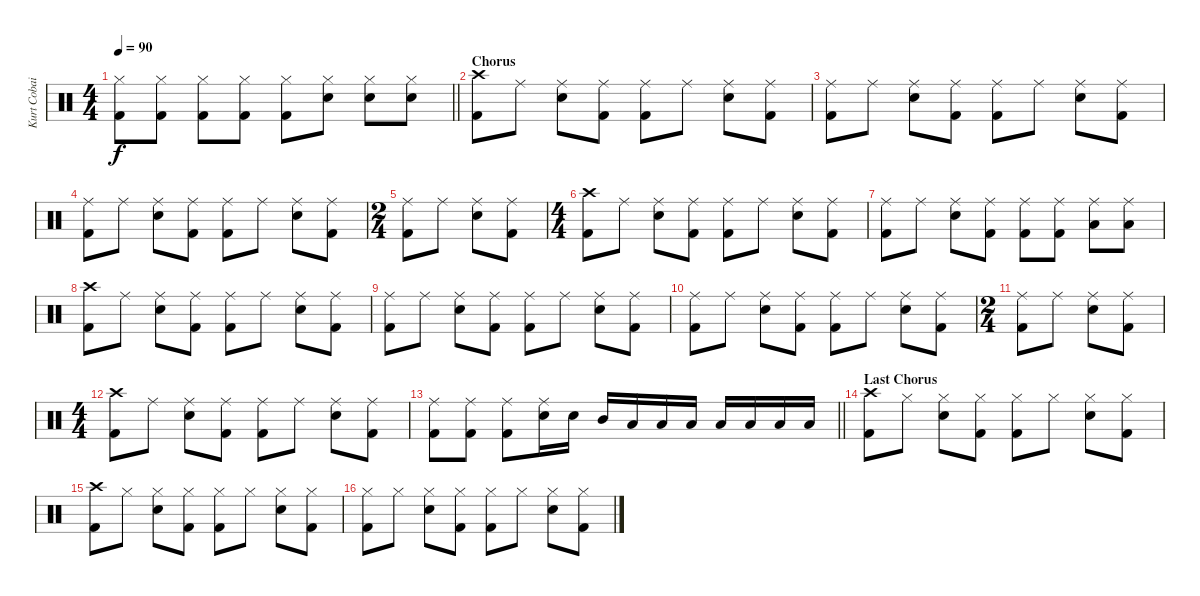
\track ("Kurt Cobain" "Kurt Cobai") {instrument percussion}
\staff {score}
\articulation defaults
\ts (4 4)
\tempo 90
\clef neutral
\barLineRight lightlight
\ks c
("Hi-Hat (closed)" "Kick (hit) 2").8{dy f} ("Hi-Hat (closed)" "Kick (hit) 2").8 ("Hi-Hat (closed)" "Kick (hit) 2").8 ("Hi-Hat (closed)" "Kick (hit) 2").8 ("Hi-Hat (closed)" "Kick (hit) 2").8 ("Hi-Hat (closed)" "Snare (hit) 2").8 ("Hi-Hat (closed)" "Snare (hit) 2").8 ("Hi-Hat (closed)" "Snare (hit) 2").8 |
\section ("" "Chorus")
("Crash high (hit)" "Kick (hit) 2").8 "Ride (middle)".8 ("Ride (middle)" "Snare (hit) 2").8 ("Ride (middle)" "Kick (hit) 2").8 ("Ride (middle)" "Kick (hit) 2").8 "Ride (middle)".8 ("Ride (middle)" "Snare (hit) 2").8 ("Ride (middle)" "Kick (hit) 2").8 |
("Ride (middle)" "Kick (hit) 2").8 "Ride (middle)".8 ("Ride (middle)" "Snare (hit) 2").8 ("Ride (middle)" "Kick (hit) 2").8 ("Ride (middle)" "Kick (hit) 2").8 "Ride (middle)".8 ("Ride (middle)" "Snare (hit) 2").8 ("Ride (middle)" "Kick (hit) 2").8 |
("Ride (middle)" "Kick (hit) 2").8 "Ride (middle)".8 ("Ride (middle)" "Snare (hit) 2").8 ("Ride (middle)" "Kick (hit) 2").8 ("Ride (middle)" "Kick (hit) 2").8 "Ride (middle)".8 ("Ride (middle)" "Snare (hit) 2").8 ("Ride (middle)" "Kick (hit) 2").8 |
\ts (2 4)
("Ride (middle)" "Kick (hit) 2").8 "Ride (middle)".8 ("Ride (middle)" "Snare (hit) 2").8 ("Ride (middle)" "Kick (hit) 2").8 |
\ts (4 4)
("Crash high (hit)" "Kick (hit) 2").8 "Ride (middle)".8 ("Ride (middle)" "Snare (hit) 2").8 ("Ride (middle)" "Kick (hit) 2").8 ("Ride (middle)" "Kick (hit) 2").8 "Ride (middle)".8 ("Ride (middle)" "Snare (hit) 2").8 ("Ride (middle)" "Kick (hit) 2").8 |
("Ride (middle)" "Kick (hit) 2").8 "Ride (middle)".8 ("Ride (middle)" "Snare (hit) 2").8 ("Ride (middle)" "Kick (hit) 2").8 ("Ride (middle)" "Kick (hit) 2").8 ("Ride (middle)" "Kick (hit) 2").8 ("Ride (middle)" "Low Tom (hit)").8 ("Ride (middle)" "Low Tom (hit)").8 |
("Crash high (hit)" "Kick (hit) 2").8 "Ride (middle)".8 ("Ride (middle)" "Snare (hit) 2").8 ("Ride (middle)" "Kick (hit) 2").8 ("Ride (middle)" "Kick (hit) 2").8 "Ride (middle)".8 ("Ride (middle)" "Snare (hit) 2").8 ("Ride (middle)" "Kick (hit) 2").8 |
("Ride (middle)" "Kick (hit) 2").8 "Ride (middle)".8 ("Ride (middle)" "Snare (hit) 2").8 ("Ride (middle)" "Kick (hit) 2").8 ("Ride (middle)" "Kick (hit) 2").8 "Ride (middle)".8 ("Ride (middle)" "Snare (hit) 2").8 ("Ride (middle)" "Kick (hit) 2").8 |
("Ride (middle)" "Kick (hit) 2").8 "Ride (middle)".8 ("Ride (middle)" "Snare (hit) 2").8 ("Ride (middle)" "Kick (hit) 2").8 ("Ride (middle)" "Kick (hit) 2").8 "Ride (middle)".8 ("Ride (middle)" "Snare (hit) 2").8 ("Ride (middle)" "Kick (hit) 2").8 |
\ts (2 4)
("Ride (middle)" "Kick (hit) 2").8 "Ride (middle)".8 ("Ride (middle)" "Snare (hit) 2").8 ("Ride (middle)" "Kick (hit) 2").8 |
\ts (4 4)
("Crash high (hit)" "Kick (hit) 2").8 "Ride (middle)".8 ("Ride (middle)" "Snare (hit) 2").8 ("Ride (middle)" "Kick (hit) 2").8 ("Ride (middle)" "Kick (hit) 2").8 "Ride (middle)".8 ("Ride (middle)" "Snare (hit) 2").8 ("Ride (middle)" "Kick (hit) 2").8 |
\barLineRight lightlight
("Ride (middle)" "Kick (hit) 2").8 ("Ride (middle)" "Kick (hit) 2").8 ("Ride (middle)" "Kick (hit) 2").8 ("Ride (middle)" "Snare (hit) 2").16 "Snare (hit) 2".16 "Mid Tom (hit)".16 "Low Tom (hit)".16 "Low Tom (hit)".16 "Low Tom (hit)".16 "Low Tom (hit)".16 "Low Tom (hit)".16 "Low Tom (hit)".16 "Low Tom (hit)".16 |
\section ("" "Last Chorus")
("Crash high (hit)" "Kick (hit) 2").8 "Hi-Hat (closed)".8 ("Hi-Hat (closed)" "Snare (hit) 2").8 ("Hi-Hat (closed)" "Kick (hit) 2").8 ("Hi-Hat (closed)" "Kick (hit) 2").8 "Hi-Hat (closed)".8 ("Hi-Hat (closed)" "Snare (hit) 2").8 ("Hi-Hat (closed)" "Kick (hit) 2").8 |
("Crash high (hit)" "Kick (hit) 2").8 "Hi-Hat (closed)".8 ("Hi-Hat (closed)" "Snare (hit) 2").8 ("Hi-Hat (closed)" "Kick (hit) 2").8 ("Hi-Hat (closed)" "Kick (hit) 2").8 "Hi-Hat (closed)".8 ("Hi-Hat (closed)" "Snare (hit) 2").8 ("Hi-Hat (closed)" "Kick (hit) 2").8 |
("Hi-Hat (closed)" "Kick (hit) 2").8 "Hi-Hat (closed)".8 ("Hi-Hat (closed)" "Snare (hit) 2").8 ("Hi-Hat (closed)" "Kick (hit) 2").8 ("Hi-Hat (closed)" "Kick (hit) 2").8 "Hi-Hat (closed)".8 ("Hi-Hat (closed)" "Snare (hit) 2").8 ("Hi-Hat (closed)" "Kick (hit) 2").8
